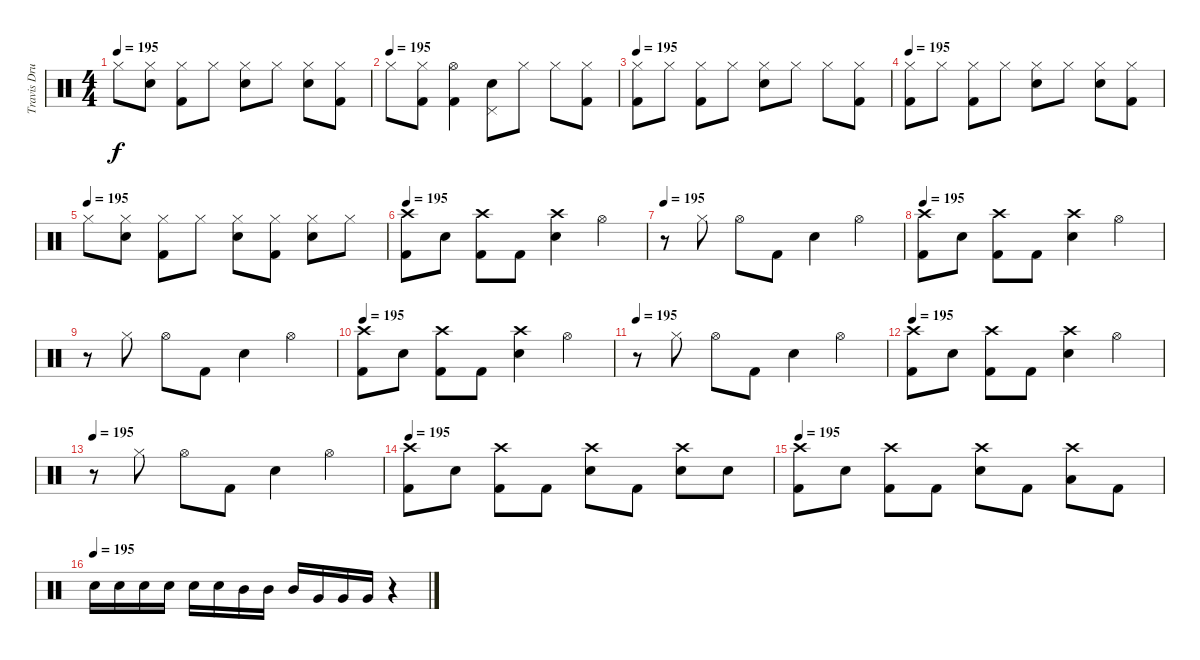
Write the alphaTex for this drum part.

\track ("Travis Drums" "Travis Dru") {instrument percussion}
\staff {score}
\articulation defaults
\ts (4 4)
\tempo 195
\clef neutral
\ks c "Hi-Hat (closed)".8{dy f}
("Hi-Hat (closed)" "Electric Snare (hit)").8 ("Hi-Hat (closed)" "Kick (hit) 2").8 "Hi-Hat (closed)".8 ("Hi-Hat (closed)" "Electric Snare (hit)").8 "Hi-Hat (closed)".8 ("Hi-Hat (closed)" "Electric Snare (hit)").8 ("Hi-Hat (closed)" "Kick (hit) 2").8 |
\tempo (195)
"Hi-Hat (closed)".8 ("Hi-Hat (closed)" "Kick (hit) 2").8 ("Hi-Hat (open)" "Kick (hit) 2").4 ("Pedal Hi-Hat (hit)" "Electric Snare (hit)").8 "Hi-Hat (closed)".8 "Hi-Hat (closed)".8 ("Hi-Hat (closed)" "Kick (hit) 2").8 |
\tempo 195
("Hi-Hat (closed)" "Kick (hit) 2").8 "Hi-Hat (closed)".8 ("Hi-Hat (closed)" "Kick (hit) 2").8 "Hi-Hat (closed)".8 ("Hi-Hat (closed)" "Electric Snare (hit)").8 "Hi-Hat (closed)".8 "Hi-Hat (closed)".8 ("Hi-Hat (closed)" "Kick (hit) 2").8 |
\tempo 195
("Hi-Hat (closed)" "Kick (hit) 2").8 "Hi-Hat (closed)".8 ("Hi-Hat (closed)" "Kick (hit) 2").8 "Hi-Hat (closed)".8 ("Hi-Hat (closed)" "Electric Snare (hit)").8 "Hi-Hat (closed)".8 ("Hi-Hat (closed)" "Electric Snare (hit)").8 ("Hi-Hat (closed)" "Kick (hit) 2").8 |
\tempo (195)
"Hi-Hat (closed)".8 ("Hi-Hat (closed)" "Electric Snare (hit)").8 ("Hi-Hat (closed)" "Kick (hit) 2").8 "Hi-Hat (closed)".8 ("Hi-Hat (closed)" "Electric Snare (hit)").8 ("Hi-Hat (closed)" "Kick (hit) 2").8 ("Hi-Hat (closed)" "Electric Snare (hit)").8 "Hi-Hat (closed)".8 |
\tempo 195
("Crash high (hit)" "Kick (hit) 2").8 "Electric Snare (hit)".8 ("Crash high (hit)" "Kick (hit) 2").8 "Kick (hit) 2".8 ("Crash high (hit)" "Electric Snare (hit)").4 "Hi-Hat (open)".4 |
\tempo 195
r.8 "Hi-Hat (closed)".8 "Hi-Hat (open)".8 "Kick (hit) 2".8 "Electric Snare (hit)".4 "Hi-Hat (open)".4 |
\tempo 195
("Crash high (hit)" "Kick (hit) 2").8 "Electric Snare (hit)".8 ("Crash high (hit)" "Kick (hit) 2").8 "Kick (hit) 2".8 ("Crash high (hit)" "Electric Snare (hit)").4 "Hi-Hat (open)".4 |
r.8 "Hi-Hat (closed)".8 "Hi-Hat (open)".8 "Kick (hit) 2".8 "Electric Snare (hit)".4 "Hi-Hat (open)".4 |
\tempo 195
("Crash high (hit)" "Kick (hit) 2").8 "Electric Snare (hit)".8 ("Crash high (hit)" "Kick (hit) 2").8 "Kick (hit) 2".8 ("Crash high (hit)" "Electric Snare (hit)").4 "Hi-Hat (open)".4 |
\tempo 195
r.8 "Hi-Hat (closed)".8 "Hi-Hat (open)".8 "Kick (hit) 2".8 "Electric Snare (hit)".4 "Hi-Hat (open)".4 |
\tempo 195
("Crash high (hit)" "Kick (hit) 2").8 "Electric Snare (hit)".8 ("Crash high (hit)" "Kick (hit) 2").8 "Kick (hit) 2".8 ("Crash high (hit)" "Electric Snare (hit)").4 "Hi-Hat (open)".4 |
\tempo 195
r.8 "Hi-Hat (closed)".8 "Hi-Hat (open)".8 "Kick (hit) 2".8 "Electric Snare (hit)".4 "Hi-Hat (open)".4 |
\tempo 195
("Crash high (hit)" "Kick (hit) 2").8 "Electric Snare (hit)".8 ("Crash high (hit)" "Kick (hit) 2").8 "Kick (hit) 2".8 ("Crash high (hit)" "Electric Snare (hit)").8 "Kick (hit) 2".8 ("Crash high (hit)" "Electric Snare (hit)").8 "Electric Snare (hit)".8 |
\tempo 195
("Crash high (hit)" "Kick (hit) 2").8 "Electric Snare (hit)".8 ("Crash high (hit)" "Kick (hit) 2").8 "Kick (hit) 2".8 ("Crash high (hit)" "Electric Snare (hit)").8 "Kick (hit) 2".8 ("Low Tom (hit)" "Crash high (hit)").8 "Kick (hit) 2".8 |
\tempo (195)
"Electric Snare (hit)".16 "Electric Snare (hit)".16 "Electric Snare (hit)".16 "Electric Snare (hit)".16 "Electric Snare (hit)".16 "Electric Snare (hit)".16 "Mid Tom (hit)".16 "Mid Tom (hit)".16 "Mid Tom (hit)".16 "Very Low Tom (hit)".16 "Very Low Tom (hit)".16 "Very Low Tom (hit)".16 r.4
